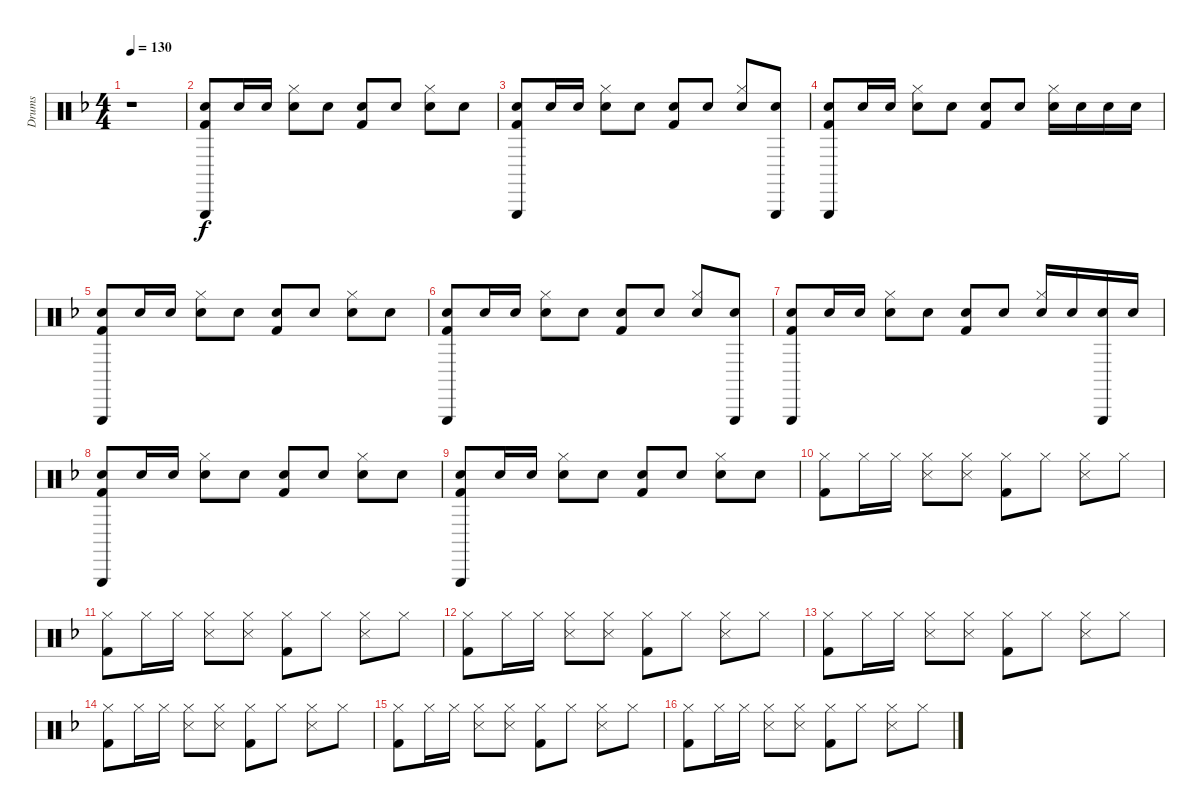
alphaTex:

\track ("Drums" "Drums") {instrument percussion}
\staff {score}
\articulation defaults
\ts (4 4)
\tempo 130
\clef neutral
\ks f
r.1{dy f} |
("Triangle (hit)" "Snare (hit) 2" "Kick (hit) 2").8 "Snare (hit) 2".16 "Snare (hit) 2".16 ("Hi-Hat (closed)" "Snare (hit) 2").8 "Snare (hit) 2".8 ("Snare (hit) 2" "Kick (hit) 2").8 "Snare (hit) 2".8 ("Hi-Hat (closed)" "Snare (hit) 2").8 "Snare (hit) 2".8 |
("Triangle (hit)" "Snare (hit) 2" "Kick (hit) 2").8 "Snare (hit) 2".16 "Snare (hit) 2".16 ("Hi-Hat (closed)" "Snare (hit) 2").8 "Snare (hit) 2".8 ("Snare (hit) 2" "Kick (hit) 2").8 "Snare (hit) 2".8 ("Hi-Hat (closed)" "Snare (hit) 2").8 ("Triangle (hit)" "Snare (hit) 2").8 |
("Triangle (hit)" "Snare (hit) 2" "Kick (hit) 2").8 "Snare (hit) 2".16 "Snare (hit) 2".16 ("Hi-Hat (closed)" "Snare (hit) 2").8 "Snare (hit) 2".8 ("Snare (hit) 2" "Kick (hit) 2").8 "Snare (hit) 2".8 ("Hi-Hat (closed)" "Snare (hit) 2").16 "Snare (hit) 2".16 "Snare (hit) 2".16 "Snare (hit) 2".16 |
("Triangle (hit)" "Snare (hit) 2" "Kick (hit) 2").8 "Snare (hit) 2".16 "Snare (hit) 2".16 ("Hi-Hat (closed)" "Snare (hit) 2").8 "Snare (hit) 2".8 ("Snare (hit) 2" "Kick (hit) 2").8 "Snare (hit) 2".8 ("Hi-Hat (closed)" "Snare (hit) 2").8 "Snare (hit) 2".8 |
("Triangle (hit)" "Snare (hit) 2" "Kick (hit) 2").8 "Snare (hit) 2".16 "Snare (hit) 2".16 ("Hi-Hat (closed)" "Snare (hit) 2").8 "Snare (hit) 2".8 ("Snare (hit) 2" "Kick (hit) 2").8 "Snare (hit) 2".8 ("Hi-Hat (closed)" "Snare (hit) 2").8 ("Triangle (hit)" "Snare (hit) 2").8 |
("Triangle (hit)" "Snare (hit) 2" "Kick (hit) 2").8 "Snare (hit) 2".16 "Snare (hit) 2".16 ("Hi-Hat (closed)" "Snare (hit) 2").8 "Snare (hit) 2".8 ("Snare (hit) 2" "Kick (hit) 2").8 "Snare (hit) 2".8 ("Hi-Hat (closed)" "Snare (hit) 2").16 "Snare (hit) 2".16 ("Triangle (hit)" "Snare (hit) 2").16 "Snare (hit) 2".16 |
("Triangle (hit)" "Snare (hit) 2" "Kick (hit) 2").8 "Snare (hit) 2".16 "Snare (hit) 2".16 ("Hi-Hat (closed)" "Snare (hit) 2").8 "Snare (hit) 2".8 ("Snare (hit) 2" "Kick (hit) 2").8 "Snare (hit) 2".8 ("Hi-Hat (closed)" "Snare (hit) 2").8 "Snare (hit) 2".8 |
("Triangle (hit)" "Snare (hit) 2" "Kick (hit) 2").8 "Snare (hit) 2".16 "Snare (hit) 2".16 ("Hi-Hat (closed)" "Snare (hit) 2").8 "Snare (hit) 2".8 ("Snare (hit) 2" "Kick (hit) 2").8 "Snare (hit) 2".8 ("Hi-Hat (closed)" "Snare (hit) 2").8 "Snare (hit) 2".8 |
("Hi-Hat (closed)" "Kick (hit) 2").8 "Hi-Hat (closed)".16 "Hi-Hat (closed)".16 ("Hi-Hat (closed)" "Snare (side stick) 3").8 ("Hi-Hat (closed)" "Snare (side stick) 3").8 ("Hi-Hat (closed)" "Kick (hit) 2").8 "Hi-Hat (closed)".8 ("Hi-Hat (closed)" "Snare (side stick) 3").8 "Hi-Hat (closed)".8 |
("Hi-Hat (closed)" "Kick (hit) 2").8 "Hi-Hat (closed)".16 "Hi-Hat (closed)".16 ("Hi-Hat (closed)" "Snare (side stick) 3").8 ("Hi-Hat (closed)" "Snare (side stick) 3").8 ("Hi-Hat (closed)" "Kick (hit) 2").8 "Hi-Hat (closed)".8 ("Hi-Hat (closed)" "Snare (side stick) 3").8 "Hi-Hat (closed)".8 |
("Hi-Hat (closed)" "Kick (hit) 2").8 "Hi-Hat (closed)".16 "Hi-Hat (closed)".16 ("Hi-Hat (closed)" "Snare (side stick) 3").8 ("Hi-Hat (closed)" "Snare (side stick) 3").8 ("Hi-Hat (closed)" "Kick (hit) 2").8 "Hi-Hat (closed)".8 ("Hi-Hat (closed)" "Snare (side stick) 3").8 "Hi-Hat (closed)".8 |
("Hi-Hat (closed)" "Kick (hit) 2").8 "Hi-Hat (closed)".16 "Hi-Hat (closed)".16 ("Hi-Hat (closed)" "Snare (side stick) 3").8 ("Hi-Hat (closed)" "Snare (side stick) 3").8 ("Hi-Hat (closed)" "Kick (hit) 2").8 "Hi-Hat (closed)".8 ("Hi-Hat (closed)" "Snare (side stick) 3").8 "Hi-Hat (closed)".8 |
("Hi-Hat (closed)" "Kick (hit) 2").8 "Hi-Hat (closed)".16 "Hi-Hat (closed)".16 ("Hi-Hat (closed)" "Snare (side stick) 3").8 ("Hi-Hat (closed)" "Snare (side stick) 3").8 ("Hi-Hat (closed)" "Kick (hit) 2").8 "Hi-Hat (closed)".8 ("Hi-Hat (closed)" "Snare (side stick) 3").8 "Hi-Hat (closed)".8 |
("Hi-Hat (closed)" "Kick (hit) 2").8 "Hi-Hat (closed)".16 "Hi-Hat (closed)".16 ("Hi-Hat (closed)" "Snare (side stick) 3").8 ("Hi-Hat (closed)" "Snare (side stick) 3").8 ("Hi-Hat (closed)" "Kick (hit) 2").8 "Hi-Hat (closed)".8 ("Hi-Hat (closed)" "Snare (side stick) 3").8 "Hi-Hat (closed)".8 |
("Hi-Hat (closed)" "Kick (hit) 2").8 "Hi-Hat (closed)".16 "Hi-Hat (closed)".16 ("Hi-Hat (closed)" "Snare (side stick) 3").8 ("Hi-Hat (closed)" "Snare (side stick) 3").8 ("Hi-Hat (closed)" "Kick (hit) 2").8 "Hi-Hat (closed)".8 ("Hi-Hat (closed)" "Snare (side stick) 3").8 "Hi-Hat (closed)".8
